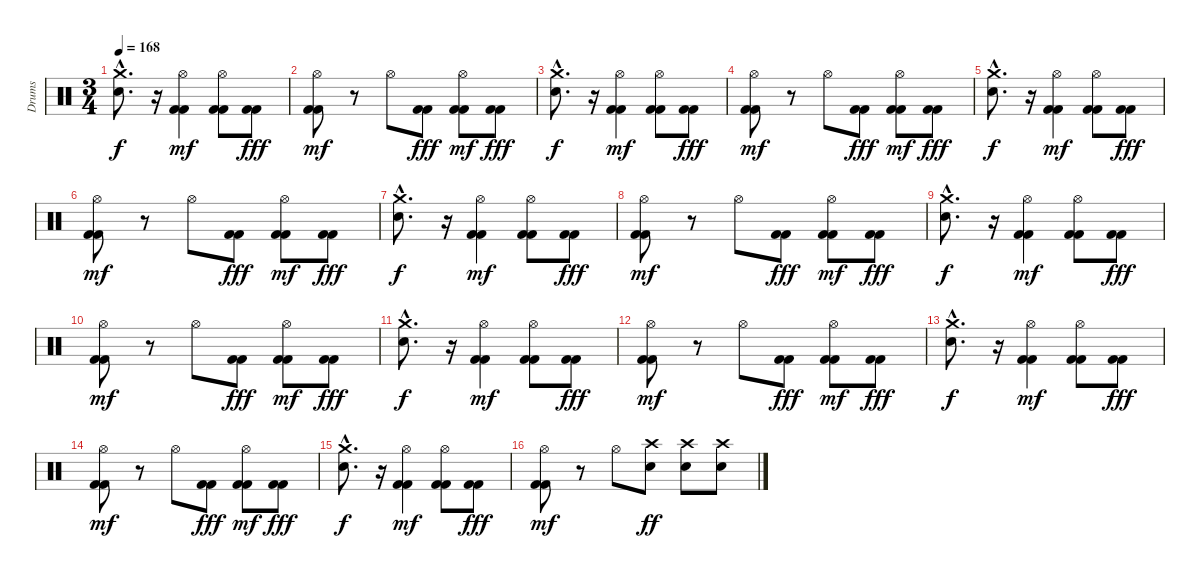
\track ("Drums" "Drums") {instrument percussion}
\staff {score}
\articulation defaults
\ts (3 4)
\tempo 168
\clef neutral
\ks c
("Crash medium (hit)"{hac} "Electric Snare (hit)"{hac}).8{d dy f} r.16 ("Kick (hit) 2" "Kick (hit) 2" "Hi-Hat (open)").4{dy mf} ("Kick (hit) 2" "Kick (hit) 2" "Hi-Hat (open)").8 ("Kick (hit) 2" "Kick (hit) 2").8{dy fff} |
("Kick (hit) 2" "Kick (hit) 2" "Hi-Hat (open)").8{dy mf} r.8 "Hi-Hat (open)".8 ("Kick (hit) 2" "Kick (hit) 2").8{dy fff} ("Kick (hit) 2" "Kick (hit) 2" "Hi-Hat (open)").8{dy mf} ("Kick (hit) 2" "Kick (hit) 2").8{dy fff} |
("Crash medium (hit)"{hac} "Electric Snare (hit)"{hac}).8{d dy f} r.16 ("Kick (hit) 2" "Kick (hit) 2" "Hi-Hat (open)").4{dy mf} ("Kick (hit) 2" "Kick (hit) 2" "Hi-Hat (open)").8 ("Kick (hit) 2" "Kick (hit) 2").8{dy fff} |
("Kick (hit) 2" "Kick (hit) 2" "Hi-Hat (open)").8{dy mf} r.8 "Hi-Hat (open)".8 ("Kick (hit) 2" "Kick (hit) 2").8{dy fff} ("Kick (hit) 2" "Kick (hit) 2" "Hi-Hat (open)").8{dy mf} ("Kick (hit) 2" "Kick (hit) 2").8{dy fff} |
("Crash medium (hit)"{hac} "Electric Snare (hit)"{hac}).8{d dy f} r.16 ("Kick (hit) 2" "Kick (hit) 2" "Hi-Hat (open)").4{dy mf} ("Kick (hit) 2" "Kick (hit) 2" "Hi-Hat (open)").8 ("Kick (hit) 2" "Kick (hit) 2").8{dy fff} |
("Kick (hit) 2" "Kick (hit) 2" "Hi-Hat (open)").8{dy mf} r.8 "Hi-Hat (open)".8 ("Kick (hit) 2" "Kick (hit) 2").8{dy fff} ("Kick (hit) 2" "Kick (hit) 2" "Hi-Hat (open)").8{dy mf} ("Kick (hit) 2" "Kick (hit) 2").8{dy fff} |
("Crash medium (hit)"{hac} "Electric Snare (hit)"{hac}).8{d dy f} r.16 ("Kick (hit) 2" "Kick (hit) 2" "Hi-Hat (open)").4{dy mf} ("Kick (hit) 2" "Kick (hit) 2" "Hi-Hat (open)").8 ("Kick (hit) 2" "Kick (hit) 2").8{dy fff} |
("Kick (hit) 2" "Kick (hit) 2" "Hi-Hat (open)").8{dy mf} r.8 "Hi-Hat (open)".8 ("Kick (hit) 2" "Kick (hit) 2").8{dy fff} ("Kick (hit) 2" "Kick (hit) 2" "Hi-Hat (open)").8{dy mf} ("Kick (hit) 2" "Kick (hit) 2").8{dy fff} |
("Crash medium (hit)"{hac} "Electric Snare (hit)"{hac}).8{d dy f} r.16 ("Kick (hit) 2" "Kick (hit) 2" "Hi-Hat (open)").4{dy mf} ("Kick (hit) 2" "Kick (hit) 2" "Hi-Hat (open)").8 ("Kick (hit) 2" "Kick (hit) 2").8{dy fff} |
("Kick (hit) 2" "Kick (hit) 2" "Hi-Hat (open)").8{dy mf} r.8 "Hi-Hat (open)".8 ("Kick (hit) 2" "Kick (hit) 2").8{dy fff} ("Kick (hit) 2" "Kick (hit) 2" "Hi-Hat (open)").8{dy mf} ("Kick (hit) 2" "Kick (hit) 2").8{dy fff} |
("Crash medium (hit)"{hac} "Electric Snare (hit)"{hac}).8{d dy f} r.16 ("Kick (hit) 2" "Kick (hit) 2" "Hi-Hat (open)").4{dy mf} ("Kick (hit) 2" "Kick (hit) 2" "Hi-Hat (open)").8 ("Kick (hit) 2" "Kick (hit) 2").8{dy fff} |
("Kick (hit) 2" "Kick (hit) 2" "Hi-Hat (open)").8{dy mf} r.8 "Hi-Hat (open)".8 ("Kick (hit) 2" "Kick (hit) 2").8{dy fff} ("Kick (hit) 2" "Kick (hit) 2" "Hi-Hat (open)").8{dy mf} ("Kick (hit) 2" "Kick (hit) 2").8{dy fff} |
("Crash medium (hit)"{hac} "Electric Snare (hit)"{hac}).8{d dy f} r.16 ("Kick (hit) 2" "Kick (hit) 2" "Hi-Hat (open)").4{dy mf} ("Kick (hit) 2" "Kick (hit) 2" "Hi-Hat (open)").8 ("Kick (hit) 2" "Kick (hit) 2").8{dy fff} |
("Kick (hit) 2" "Kick (hit) 2" "Hi-Hat (open)").8{dy mf} r.8 "Hi-Hat (open)".8 ("Kick (hit) 2" "Kick (hit) 2").8{dy fff} ("Kick (hit) 2" "Kick (hit) 2" "Hi-Hat (open)").8{dy mf} ("Kick (hit) 2" "Kick (hit) 2").8{dy fff} |
("Crash medium (hit)"{hac} "Electric Snare (hit)"{hac}).8{d dy f} r.16 ("Kick (hit) 2" "Kick (hit) 2" "Hi-Hat (open)").4{dy mf} ("Kick (hit) 2" "Kick (hit) 2" "Hi-Hat (open)").8 ("Kick (hit) 2" "Kick (hit) 2").8{dy fff} |
("Kick (hit) 2" "Kick (hit) 2" "Hi-Hat (open)").8{dy mf} r.8 "Hi-Hat (open)".8 ("Crash high (hit)" "Electric Snare (hit)").8{dy ff} ("Crash high (hit)" "Electric Snare (hit)").8 ("Crash high (hit)" "Electric Snare (hit)").8
